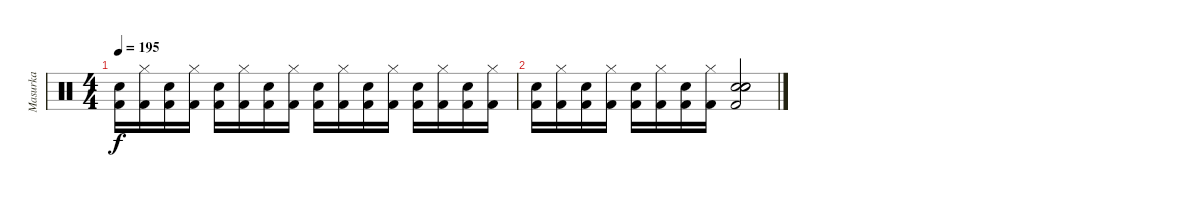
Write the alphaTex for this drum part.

\track ("Masurka" "Masurka") {instrument percussion}
\staff {score}
\articulation defaults
\ts (4 4)
\tempo 195
\clef neutral
\ks c
("Kick (hit) 2" "Snare (hit) 2").16{dy f} ("Hi-Hat (closed)" "Kick (hit) 2").16 ("Kick (hit) 2" "Snare (hit) 2").16 ("Hi-Hat (closed)" "Kick (hit) 2").16 ("Kick (hit) 2" "Snare (hit) 2").16 ("Hi-Hat (closed)" "Kick (hit) 2").16 ("Kick (hit) 2" "Snare (hit) 2").16 ("Hi-Hat (closed)" "Kick (hit) 2").16 ("Kick (hit) 2" "Snare (hit) 2").16 ("Hi-Hat (closed)" "Kick (hit) 2").16 ("Kick (hit) 2" "Snare (hit) 2").16 ("Hi-Hat (closed)" "Kick (hit) 2").16 ("Kick (hit) 2" "Snare (hit) 2").16 ("Hi-Hat (closed)" "Kick (hit) 2").16 ("Kick (hit) 2" "Snare (hit) 2").16 ("Hi-Hat (closed)" "Kick (hit) 2").16 |
("Kick (hit) 2" "Snare (hit) 2").16 ("Hi-Hat (closed)" "Kick (hit) 2").16 ("Kick (hit) 2" "Snare (hit) 2").16 ("Hi-Hat (closed)" "Kick (hit) 2").16 ("Kick (hit) 2" "Snare (hit) 2").16 ("Hi-Hat (closed)" "Kick (hit) 2").16 ("Kick (hit) 2" "Snare (hit) 2").16 ("Hi-Hat (closed)" "Kick (hit) 2").16 ("Snare (hit) 2" "Snare (hit) 2" "Kick (hit) 2" "Snare (hit) 2").2
